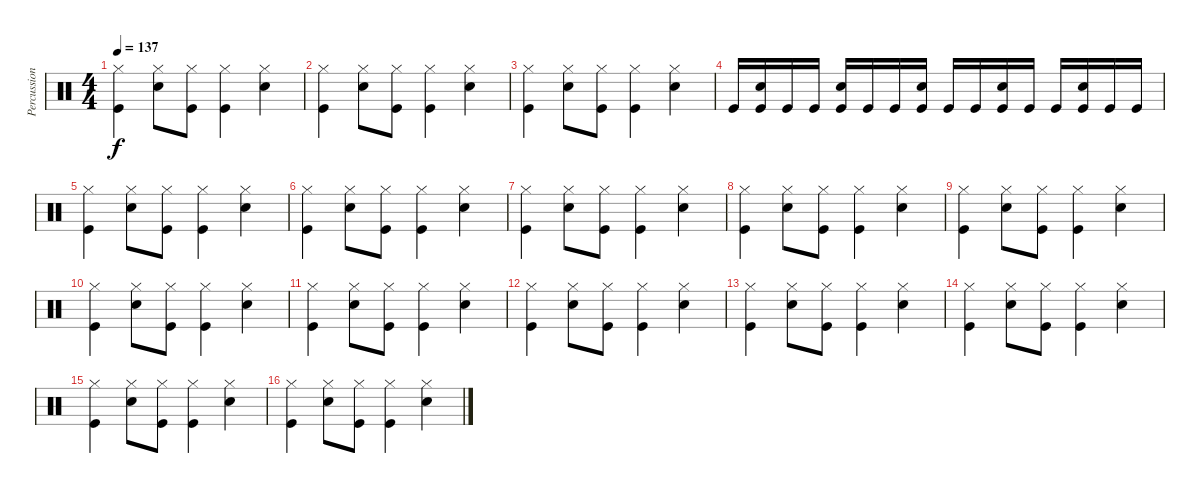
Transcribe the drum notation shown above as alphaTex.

\track ("Percussion" "Percussion") {instrument percussion}
\staff {score}
\articulation defaults
\ts (4 4)
\tempo 137
\clef neutral
\ks c
("Hi-Hat (closed)" "Kick (hit)").4{dy f} ("Hi-Hat (closed)" "Snare (hit) 2").8 ("Hi-Hat (closed)" "Kick (hit)").8 ("Hi-Hat (closed)" "Kick (hit)").4 ("Hi-Hat (closed)" "Snare (hit) 2").4 |
("Hi-Hat (closed)" "Kick (hit)").4 ("Hi-Hat (closed)" "Snare (hit) 2").8 ("Hi-Hat (closed)" "Kick (hit)").8 ("Hi-Hat (closed)" "Kick (hit)").4 ("Hi-Hat (closed)" "Snare (hit) 2").4 |
("Hi-Hat (closed)" "Kick (hit)").4 ("Hi-Hat (closed)" "Snare (hit) 2").8 ("Hi-Hat (closed)" "Kick (hit)").8 ("Hi-Hat (closed)" "Kick (hit)").4 ("Hi-Hat (closed)" "Snare (hit) 2").4 |
"Kick (hit)".16 ("Snare (hit) 2" "Kick (hit)").16 "Kick (hit)".16 "Kick (hit)".16 ("Snare (hit) 2" "Kick (hit)").16 "Kick (hit)".16 "Kick (hit)".16 ("Snare (hit) 2" "Kick (hit)").16 "Kick (hit)".16 "Kick (hit)".16 ("Snare (hit) 2" "Kick (hit)").16 "Kick (hit)".16 "Kick (hit)".16 ("Snare (hit) 2" "Kick (hit)").16 "Kick (hit)".16 "Kick (hit)".16 |
("Hi-Hat (closed)" "Kick (hit)").4 ("Hi-Hat (closed)" "Snare (hit) 2").8 ("Hi-Hat (closed)" "Kick (hit)").8 ("Hi-Hat (closed)" "Kick (hit)").4 ("Hi-Hat (closed)" "Snare (hit) 2").4 |
("Hi-Hat (closed)" "Kick (hit)").4 ("Hi-Hat (closed)" "Snare (hit) 2").8 ("Hi-Hat (closed)" "Kick (hit)").8 ("Hi-Hat (closed)" "Kick (hit)").4 ("Hi-Hat (closed)" "Snare (hit) 2").4 |
("Hi-Hat (closed)" "Kick (hit)").4 ("Hi-Hat (closed)" "Snare (hit) 2").8 ("Hi-Hat (closed)" "Kick (hit)").8 ("Hi-Hat (closed)" "Kick (hit)").4 ("Hi-Hat (closed)" "Snare (hit) 2").4 |
("Hi-Hat (closed)" "Kick (hit)").4 ("Hi-Hat (closed)" "Snare (hit) 2").8 ("Hi-Hat (closed)" "Kick (hit)").8 ("Hi-Hat (closed)" "Kick (hit)").4 ("Hi-Hat (closed)" "Snare (hit) 2").4 |
("Hi-Hat (closed)" "Kick (hit)").4 ("Hi-Hat (closed)" "Snare (hit) 2").8 ("Hi-Hat (closed)" "Kick (hit)").8 ("Hi-Hat (closed)" "Kick (hit)").4 ("Hi-Hat (closed)" "Snare (hit) 2").4 |
("Hi-Hat (closed)" "Kick (hit)").4 ("Hi-Hat (closed)" "Snare (hit) 2").8 ("Hi-Hat (closed)" "Kick (hit)").8 ("Hi-Hat (closed)" "Kick (hit)").4 ("Hi-Hat (closed)" "Snare (hit) 2").4 |
("Hi-Hat (closed)" "Kick (hit)").4 ("Hi-Hat (closed)" "Snare (hit) 2").8 ("Hi-Hat (closed)" "Kick (hit)").8 ("Hi-Hat (closed)" "Kick (hit)").4 ("Hi-Hat (closed)" "Snare (hit) 2").4 |
("Hi-Hat (closed)" "Kick (hit)").4 ("Hi-Hat (closed)" "Snare (hit) 2").8 ("Hi-Hat (closed)" "Kick (hit)").8 ("Hi-Hat (closed)" "Kick (hit)").4 ("Hi-Hat (closed)" "Snare (hit) 2").4 |
("Hi-Hat (closed)" "Kick (hit)").4 ("Hi-Hat (closed)" "Snare (hit) 2").8 ("Hi-Hat (closed)" "Kick (hit)").8 ("Hi-Hat (closed)" "Kick (hit)").4 ("Hi-Hat (closed)" "Snare (hit) 2").4 |
("Hi-Hat (closed)" "Kick (hit)").4 ("Hi-Hat (closed)" "Snare (hit) 2").8 ("Hi-Hat (closed)" "Kick (hit)").8 ("Hi-Hat (closed)" "Kick (hit)").4 ("Hi-Hat (closed)" "Snare (hit) 2").4 |
("Hi-Hat (closed)" "Kick (hit)").4 ("Hi-Hat (closed)" "Snare (hit) 2").8 ("Hi-Hat (closed)" "Kick (hit)").8 ("Hi-Hat (closed)" "Kick (hit)").4 ("Hi-Hat (closed)" "Snare (hit) 2").4 |
("Hi-Hat (closed)" "Kick (hit)").4 ("Hi-Hat (closed)" "Snare (hit) 2").8 ("Hi-Hat (closed)" "Kick (hit)").8 ("Hi-Hat (closed)" "Kick (hit)").4 ("Hi-Hat (closed)" "Snare (hit) 2").4
